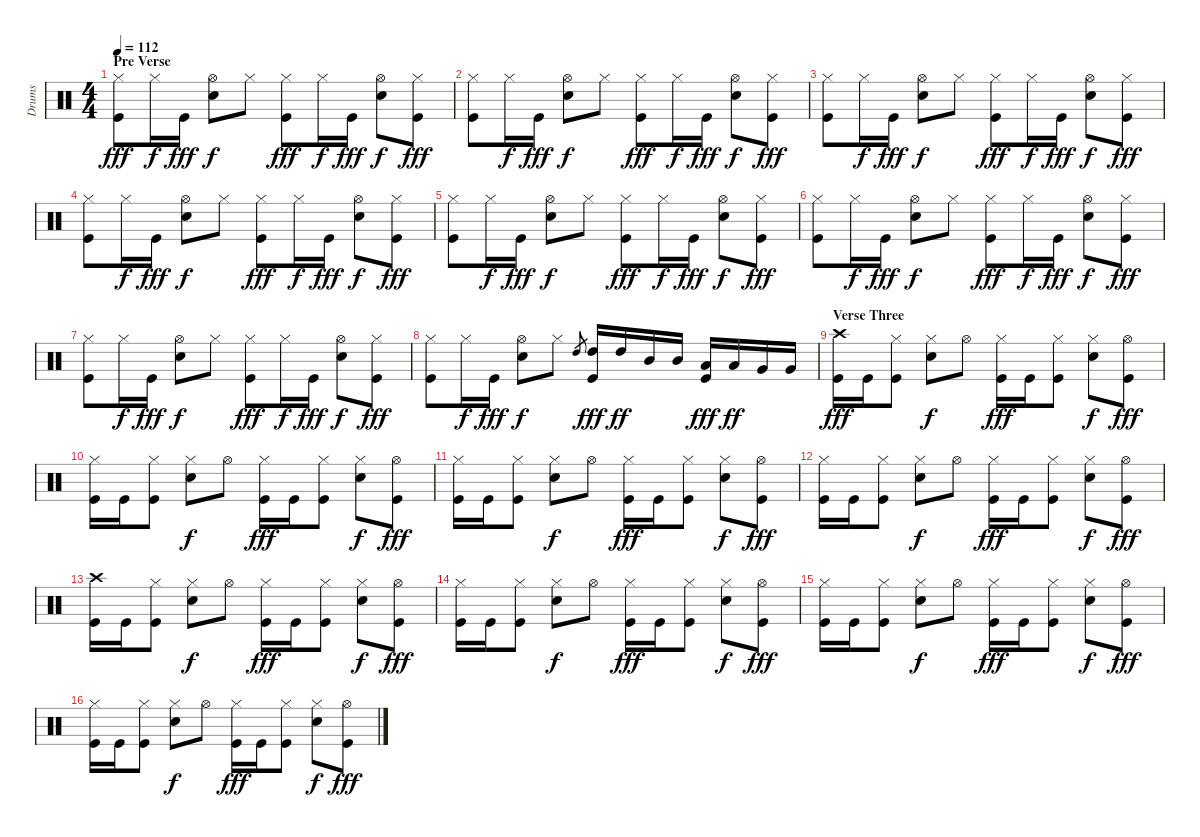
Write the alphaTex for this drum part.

\track ("Drums" "Drums") {instrument percussion}
\staff {score}
\articulation defaults
\ts (4 4)
\section ("" "Pre Verse ")
\tempo 112
\clef neutral
\ks c
("Hi-Hat (closed)" "Kick (hit)").8{dy fff} "Hi-Hat (closed)".16{dy f} "Kick (hit)".16{dy fff} ("Hi-Hat (open)" "Snare (hit) 2").8{dy f} "Hi-Hat (closed)".8 ("Hi-Hat (closed)" "Kick (hit)").8{dy fff} "Hi-Hat (closed)".16{dy f} "Kick (hit)".16{dy fff} ("Hi-Hat (open)" "Snare (hit) 2").8{dy f} ("Hi-Hat (closed)" "Kick (hit)").8{dy fff} |
("Hi-Hat (closed)" "Kick (hit)").8 "Hi-Hat (closed)".16{dy f} "Kick (hit)".16{dy fff} ("Hi-Hat (open)" "Snare (hit) 2").8{dy f} "Hi-Hat (closed)".8 ("Hi-Hat (closed)" "Kick (hit)").8{dy fff} "Hi-Hat (closed)".16{dy f} "Kick (hit)".16{dy fff} ("Hi-Hat (open)" "Snare (hit) 2").8{dy f} ("Hi-Hat (closed)" "Kick (hit)").8{dy fff} |
("Hi-Hat (closed)" "Kick (hit)").8 "Hi-Hat (closed)".16{dy f} "Kick (hit)".16{dy fff} ("Hi-Hat (open)" "Snare (hit) 2").8{dy f} "Hi-Hat (closed)".8 ("Hi-Hat (closed)" "Kick (hit)").8{dy fff} "Hi-Hat (closed)".16{dy f} "Kick (hit)".16{dy fff} ("Hi-Hat (open)" "Snare (hit) 2").8{dy f} ("Hi-Hat (closed)" "Kick (hit)").8{dy fff} |
("Hi-Hat (closed)" "Kick (hit)").8 "Hi-Hat (closed)".16{dy f} "Kick (hit)".16{dy fff} ("Hi-Hat (open)" "Snare (hit) 2").8{dy f} "Hi-Hat (closed)".8 ("Hi-Hat (closed)" "Kick (hit)").8{dy fff} "Hi-Hat (closed)".16{dy f} "Kick (hit)".16{dy fff} ("Hi-Hat (open)" "Snare (hit) 2").8{dy f} ("Hi-Hat (closed)" "Kick (hit)").8{dy fff} |
("Hi-Hat (closed)" "Kick (hit)").8 "Hi-Hat (closed)".16{dy f} "Kick (hit)".16{dy fff} ("Hi-Hat (open)" "Snare (hit) 2").8{dy f} "Hi-Hat (closed)".8 ("Hi-Hat (closed)" "Kick (hit)").8{dy fff} "Hi-Hat (closed)".16{dy f} "Kick (hit)".16{dy fff} ("Hi-Hat (open)" "Snare (hit) 2").8{dy f} ("Hi-Hat (closed)" "Kick (hit)").8{dy fff} |
("Hi-Hat (closed)" "Kick (hit)").8 "Hi-Hat (closed)".16{dy f} "Kick (hit)".16{dy fff} ("Hi-Hat (open)" "Snare (hit) 2").8{dy f} "Hi-Hat (closed)".8 ("Hi-Hat (closed)" "Kick (hit)").8{dy fff} "Hi-Hat (closed)".16{dy f} "Kick (hit)".16{dy fff} ("Hi-Hat (open)" "Snare (hit) 2").8{dy f} ("Hi-Hat (closed)" "Kick (hit)").8{dy fff} |
("Hi-Hat (closed)" "Kick (hit)").8 "Hi-Hat (closed)".16{dy f} "Kick (hit)".16{dy fff} ("Hi-Hat (open)" "Snare (hit) 2").8{dy f} "Hi-Hat (closed)".8 ("Hi-Hat (closed)" "Kick (hit)").8{dy fff} "Hi-Hat (closed)".16{dy f} "Kick (hit)".16{dy fff} ("Hi-Hat (open)" "Snare (hit) 2").8{dy f} ("Hi-Hat (closed)" "Kick (hit)").8{dy fff} |
("Hi-Hat (closed)" "Kick (hit)").8 "Hi-Hat (closed)".16{dy f} "Kick (hit)".16{dy fff} ("Hi-Hat (open)" "Snare (hit) 2").8{dy f} "Hi-Hat (closed)".8 "High Tom (hit)".8{gr} ("High Tom (hit)" "Kick (hit)").16{dy fff} "High Tom (hit)".16{dy ff} "Mid Tom (hit)".16 "Mid Tom (hit)".16 ("Low Tom (hit)" "Kick (hit)").16{dy fff} "Low Tom (hit)".16{dy ff} "Very Low Tom (hit)".16 "Very Low Tom (hit)".16 |
\section ("" "Verse Three")
("Crash high (hit)" "Kick (hit)").16{dy fff} "Kick (hit)".16 ("Hi-Hat (closed)" "Kick (hit)").8 ("Hi-Hat (closed)" "Snare (hit) 2").8{dy f} "Hi-Hat (open)".8 ("Hi-Hat (closed)" "Kick (hit)").16{dy fff} "Kick (hit)".16 ("Hi-Hat (closed)" "Kick (hit)").8 ("Hi-Hat (closed)" "Snare (hit) 2").8{dy f} ("Hi-Hat (open)" "Kick (hit)").8{dy fff} |
("Hi-Hat (closed)" "Kick (hit)").16 "Kick (hit)".16 ("Hi-Hat (closed)" "Kick (hit)").8 ("Hi-Hat (closed)" "Snare (hit) 2").8{dy f} "Hi-Hat (open)".8 ("Hi-Hat (closed)" "Kick (hit)").16{dy fff} "Kick (hit)".16 ("Hi-Hat (closed)" "Kick (hit)").8 ("Hi-Hat (closed)" "Snare (hit) 2").8{dy f} ("Hi-Hat (open)" "Kick (hit)").8{dy fff} |
("Hi-Hat (closed)" "Kick (hit)").16 "Kick (hit)".16 ("Hi-Hat (closed)" "Kick (hit)").8 ("Hi-Hat (closed)" "Snare (hit) 2").8{dy f} "Hi-Hat (open)".8 ("Hi-Hat (closed)" "Kick (hit)").16{dy fff} "Kick (hit)".16 ("Hi-Hat (closed)" "Kick (hit)").8 ("Hi-Hat (closed)" "Snare (hit) 2").8{dy f} ("Hi-Hat (open)" "Kick (hit)").8{dy fff} |
("Hi-Hat (closed)" "Kick (hit)").16 "Kick (hit)".16 ("Hi-Hat (closed)" "Kick (hit)").8 ("Hi-Hat (closed)" "Snare (hit) 2").8{dy f} "Hi-Hat (open)".8 ("Hi-Hat (closed)" "Kick (hit)").16{dy fff} "Kick (hit)".16 ("Hi-Hat (closed)" "Kick (hit)").8 ("Hi-Hat (closed)" "Snare (hit) 2").8{dy f} ("Hi-Hat (open)" "Kick (hit)").8{dy fff} |
("Crash high (hit)" "Kick (hit)").16 "Kick (hit)".16 ("Hi-Hat (closed)" "Kick (hit)").8 ("Hi-Hat (closed)" "Snare (hit) 2").8{dy f} "Hi-Hat (open)".8 ("Hi-Hat (closed)" "Kick (hit)").16{dy fff} "Kick (hit)".16 ("Hi-Hat (closed)" "Kick (hit)").8 ("Hi-Hat (closed)" "Snare (hit) 2").8{dy f} ("Hi-Hat (open)" "Kick (hit)").8{dy fff} |
("Hi-Hat (closed)" "Kick (hit)").16 "Kick (hit)".16 ("Hi-Hat (closed)" "Kick (hit)").8 ("Hi-Hat (closed)" "Snare (hit) 2").8{dy f} "Hi-Hat (open)".8 ("Hi-Hat (closed)" "Kick (hit)").16{dy fff} "Kick (hit)".16 ("Hi-Hat (closed)" "Kick (hit)").8 ("Hi-Hat (closed)" "Snare (hit) 2").8{dy f} ("Hi-Hat (open)" "Kick (hit)").8{dy fff} |
("Hi-Hat (closed)" "Kick (hit)").16 "Kick (hit)".16 ("Hi-Hat (closed)" "Kick (hit)").8 ("Hi-Hat (closed)" "Snare (hit) 2").8{dy f} "Hi-Hat (open)".8 ("Hi-Hat (closed)" "Kick (hit)").16{dy fff} "Kick (hit)".16 ("Hi-Hat (closed)" "Kick (hit)").8 ("Hi-Hat (closed)" "Snare (hit) 2").8{dy f} ("Hi-Hat (open)" "Kick (hit)").8{dy fff} |
("Hi-Hat (closed)" "Kick (hit)").16 "Kick (hit)".16 ("Hi-Hat (closed)" "Kick (hit)").8 ("Hi-Hat (closed)" "Snare (hit) 2").8{dy f} "Hi-Hat (open)".8 ("Hi-Hat (closed)" "Kick (hit)").16{dy fff} "Kick (hit)".16 ("Hi-Hat (closed)" "Kick (hit)").8 ("Hi-Hat (closed)" "Snare (hit) 2").8{dy f} ("Hi-Hat (open)" "Kick (hit)").8{dy fff}
